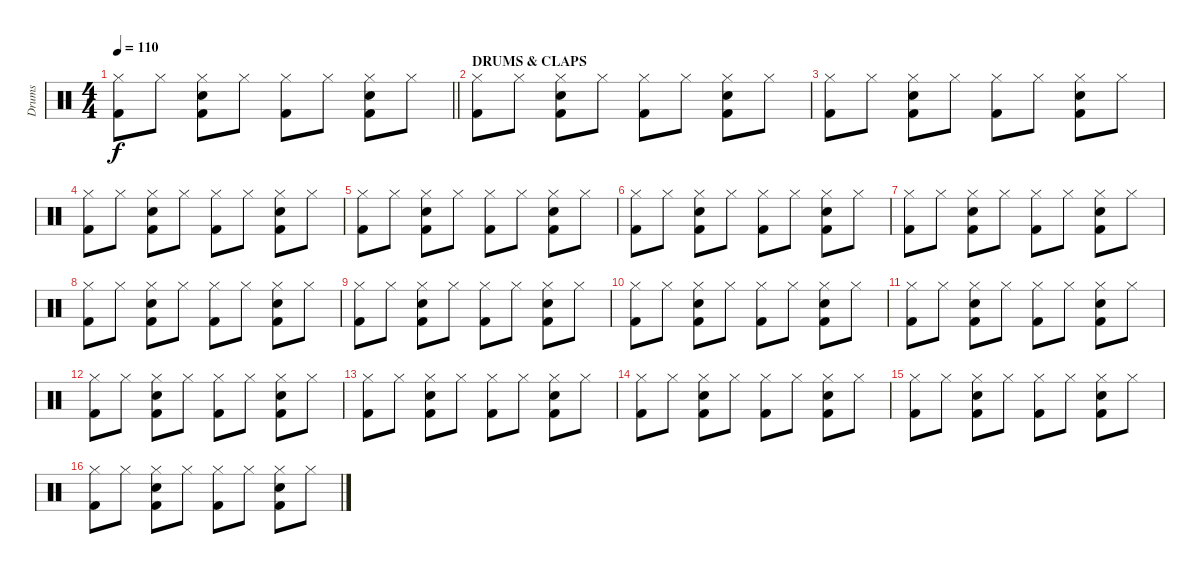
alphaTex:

\track ("Drums" "Drums") {instrument percussion}
\staff {score}
\articulation defaults
\ts (4 4)
\tempo 110
\clef neutral
\barLineRight lightlight
\ks c
("Hi-Hat (closed)" "Kick (hit) 2").8{dy f} "Hi-Hat (closed)".8 ("Hi-Hat (closed)" "Snare (hit) 2" "Kick (hit) 2").8 "Hi-Hat (closed)".8 ("Hi-Hat (closed)" "Kick (hit) 2").8 "Hi-Hat (closed)".8 ("Hi-Hat (closed)" "Snare (hit) 2" "Kick (hit) 2").8 "Hi-Hat (closed)".8 |
\section ("" "DRUMS & CLAPS")
("Hi-Hat (closed)" "Kick (hit) 2").8 "Hi-Hat (closed)".8 ("Hi-Hat (closed)" "Snare (hit) 2" "Kick (hit) 2").8 "Hi-Hat (closed)".8 ("Hi-Hat (closed)" "Kick (hit) 2").8 "Hi-Hat (closed)".8 ("Hi-Hat (closed)" "Snare (hit) 2" "Kick (hit) 2").8 "Hi-Hat (closed)".8 |
("Hi-Hat (closed)" "Kick (hit) 2").8 "Hi-Hat (closed)".8 ("Hi-Hat (closed)" "Snare (hit) 2" "Kick (hit) 2").8 "Hi-Hat (closed)".8 ("Hi-Hat (closed)" "Kick (hit) 2").8 "Hi-Hat (closed)".8 ("Hi-Hat (closed)" "Snare (hit) 2" "Kick (hit) 2").8 "Hi-Hat (closed)".8 |
("Hi-Hat (closed)" "Kick (hit) 2").8 "Hi-Hat (closed)".8 ("Hi-Hat (closed)" "Snare (hit) 2" "Kick (hit) 2").8 "Hi-Hat (closed)".8 ("Hi-Hat (closed)" "Kick (hit) 2").8 "Hi-Hat (closed)".8 ("Hi-Hat (closed)" "Snare (hit) 2" "Kick (hit) 2").8 "Hi-Hat (closed)".8 |
("Hi-Hat (closed)" "Kick (hit) 2").8 "Hi-Hat (closed)".8 ("Hi-Hat (closed)" "Snare (hit) 2" "Kick (hit) 2").8 "Hi-Hat (closed)".8 ("Hi-Hat (closed)" "Kick (hit) 2").8 "Hi-Hat (closed)".8 ("Hi-Hat (closed)" "Snare (hit) 2" "Kick (hit) 2").8 "Hi-Hat (closed)".8 |
("Hi-Hat (closed)" "Kick (hit) 2").8 "Hi-Hat (closed)".8 ("Hi-Hat (closed)" "Snare (hit) 2" "Kick (hit) 2").8 "Hi-Hat (closed)".8 ("Hi-Hat (closed)" "Kick (hit) 2").8 "Hi-Hat (closed)".8 ("Hi-Hat (closed)" "Snare (hit) 2" "Kick (hit) 2").8 "Hi-Hat (closed)".8 |
("Hi-Hat (closed)" "Kick (hit) 2").8 "Hi-Hat (closed)".8 ("Hi-Hat (closed)" "Snare (hit) 2" "Kick (hit) 2").8 "Hi-Hat (closed)".8 ("Hi-Hat (closed)" "Kick (hit) 2").8 "Hi-Hat (closed)".8 ("Hi-Hat (closed)" "Snare (hit) 2" "Kick (hit) 2").8 "Hi-Hat (closed)".8 |
("Hi-Hat (closed)" "Kick (hit) 2").8 "Hi-Hat (closed)".8 ("Hi-Hat (closed)" "Snare (hit) 2" "Kick (hit) 2").8 "Hi-Hat (closed)".8 ("Hi-Hat (closed)" "Kick (hit) 2").8 "Hi-Hat (closed)".8 ("Hi-Hat (closed)" "Snare (hit) 2" "Kick (hit) 2").8 "Hi-Hat (closed)".8 |
("Hi-Hat (closed)" "Kick (hit) 2").8 "Hi-Hat (closed)".8 ("Hi-Hat (closed)" "Snare (hit) 2" "Kick (hit) 2").8 "Hi-Hat (closed)".8 ("Hi-Hat (closed)" "Kick (hit) 2").8 "Hi-Hat (closed)".8 ("Hi-Hat (closed)" "Snare (hit) 2" "Kick (hit) 2").8 "Hi-Hat (closed)".8 |
("Hi-Hat (closed)" "Kick (hit) 2").8 "Hi-Hat (closed)".8 ("Hi-Hat (closed)" "Snare (hit) 2" "Kick (hit) 2").8 "Hi-Hat (closed)".8 ("Hi-Hat (closed)" "Kick (hit) 2").8 "Hi-Hat (closed)".8 ("Hi-Hat (closed)" "Snare (hit) 2" "Kick (hit) 2").8 "Hi-Hat (closed)".8 |
("Hi-Hat (closed)" "Kick (hit) 2").8 "Hi-Hat (closed)".8 ("Hi-Hat (closed)" "Snare (hit) 2" "Kick (hit) 2").8 "Hi-Hat (closed)".8 ("Hi-Hat (closed)" "Kick (hit) 2").8 "Hi-Hat (closed)".8 ("Hi-Hat (closed)" "Snare (hit) 2" "Kick (hit) 2").8 "Hi-Hat (closed)".8 |
("Hi-Hat (closed)" "Kick (hit) 2").8 "Hi-Hat (closed)".8 ("Hi-Hat (closed)" "Snare (hit) 2" "Kick (hit) 2").8 "Hi-Hat (closed)".8 ("Hi-Hat (closed)" "Kick (hit) 2").8 "Hi-Hat (closed)".8 ("Hi-Hat (closed)" "Snare (hit) 2" "Kick (hit) 2").8 "Hi-Hat (closed)".8 |
("Hi-Hat (closed)" "Kick (hit) 2").8 "Hi-Hat (closed)".8 ("Hi-Hat (closed)" "Snare (hit) 2" "Kick (hit) 2").8 "Hi-Hat (closed)".8 ("Hi-Hat (closed)" "Kick (hit) 2").8 "Hi-Hat (closed)".8 ("Hi-Hat (closed)" "Snare (hit) 2" "Kick (hit) 2").8 "Hi-Hat (closed)".8 |
("Hi-Hat (closed)" "Kick (hit) 2").8 "Hi-Hat (closed)".8 ("Hi-Hat (closed)" "Snare (hit) 2" "Kick (hit) 2").8 "Hi-Hat (closed)".8 ("Hi-Hat (closed)" "Kick (hit) 2").8 "Hi-Hat (closed)".8 ("Hi-Hat (closed)" "Snare (hit) 2" "Kick (hit) 2").8 "Hi-Hat (closed)".8 |
("Hi-Hat (closed)" "Kick (hit) 2").8 "Hi-Hat (closed)".8 ("Hi-Hat (closed)" "Snare (hit) 2" "Kick (hit) 2").8 "Hi-Hat (closed)".8 ("Hi-Hat (closed)" "Kick (hit) 2").8 "Hi-Hat (closed)".8 ("Hi-Hat (closed)" "Snare (hit) 2" "Kick (hit) 2").8 "Hi-Hat (closed)".8 |
("Hi-Hat (closed)" "Kick (hit) 2").8 "Hi-Hat (closed)".8 ("Hi-Hat (closed)" "Snare (hit) 2" "Kick (hit) 2").8 "Hi-Hat (closed)".8 ("Hi-Hat (closed)" "Kick (hit) 2").8 "Hi-Hat (closed)".8 ("Hi-Hat (closed)" "Snare (hit) 2" "Kick (hit) 2").8 "Hi-Hat (closed)".8
